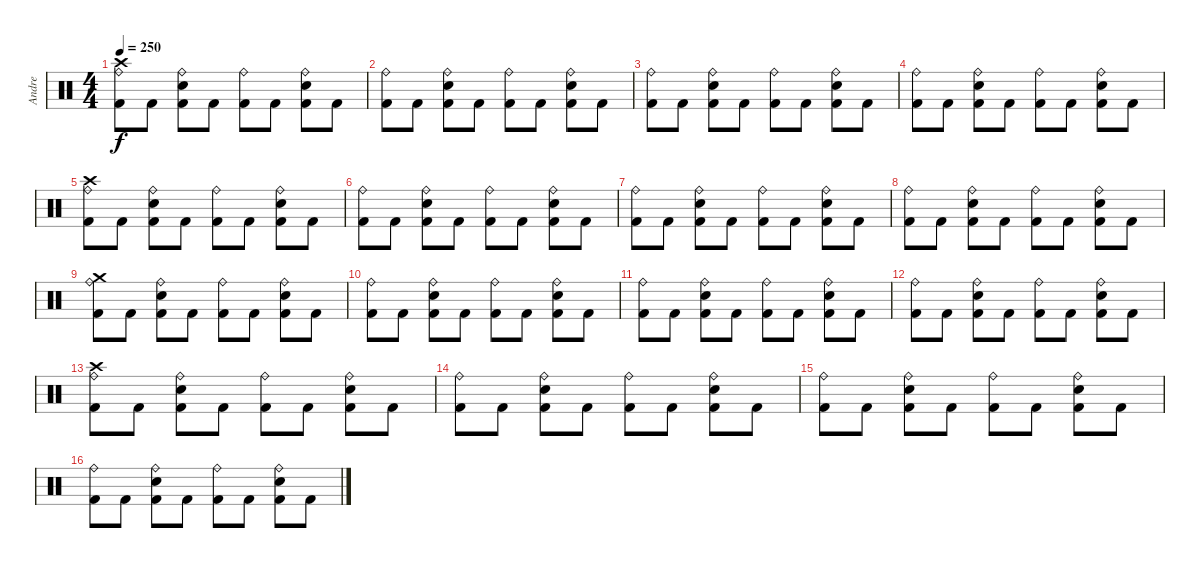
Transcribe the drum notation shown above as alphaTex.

\track ("Andre" "Andre") {instrument percussion}
\staff {score}
\articulation defaults
\ts (4 4)
\tempo 250
\clef neutral
\ks c
("Crash high (hit)" "Ride (bell)" "Kick (hit) 2").8{dy f} "Kick (hit) 2".8 ("Ride (bell)" "Snare (hit) 2" "Kick (hit) 2").8 "Kick (hit) 2".8 ("Ride (bell)" "Kick (hit) 2").8 "Kick (hit) 2".8 ("Ride (bell)" "Snare (hit) 2" "Kick (hit) 2").8 "Kick (hit) 2".8 |
("Ride (bell)" "Kick (hit) 2").8 "Kick (hit) 2".8 ("Ride (bell)" "Snare (hit) 2" "Kick (hit) 2").8 "Kick (hit) 2".8 ("Ride (bell)" "Kick (hit) 2").8 "Kick (hit) 2".8 ("Ride (bell)" "Snare (hit) 2" "Kick (hit) 2").8 "Kick (hit) 2".8 |
("Ride (bell)" "Kick (hit) 2").8 "Kick (hit) 2".8 ("Ride (bell)" "Snare (hit) 2" "Kick (hit) 2").8 "Kick (hit) 2".8 ("Ride (bell)" "Kick (hit) 2").8 "Kick (hit) 2".8 ("Ride (bell)" "Snare (hit) 2" "Kick (hit) 2").8 "Kick (hit) 2".8 |
("Ride (bell)" "Kick (hit) 2").8 "Kick (hit) 2".8 ("Ride (bell)" "Snare (hit) 2" "Kick (hit) 2").8 "Kick (hit) 2".8 ("Ride (bell)" "Kick (hit) 2").8 "Kick (hit) 2".8 ("Ride (bell)" "Snare (hit) 2" "Kick (hit) 2").8 "Kick (hit) 2".8 |
("Crash high (hit)" "Ride (bell)" "Kick (hit) 2").8 "Kick (hit) 2".8 ("Ride (bell)" "Snare (hit) 2" "Kick (hit) 2").8 "Kick (hit) 2".8 ("Ride (bell)" "Kick (hit) 2").8 "Kick (hit) 2".8 ("Ride (bell)" "Snare (hit) 2" "Kick (hit) 2").8 "Kick (hit) 2".8 |
("Ride (bell)" "Kick (hit) 2").8 "Kick (hit) 2".8 ("Ride (bell)" "Snare (hit) 2" "Kick (hit) 2").8 "Kick (hit) 2".8 ("Ride (bell)" "Kick (hit) 2").8 "Kick (hit) 2".8 ("Ride (bell)" "Snare (hit) 2" "Kick (hit) 2").8 "Kick (hit) 2".8 |
("Ride (bell)" "Kick (hit) 2").8 "Kick (hit) 2".8 ("Ride (bell)" "Snare (hit) 2" "Kick (hit) 2").8 "Kick (hit) 2".8 ("Ride (bell)" "Kick (hit) 2").8 "Kick (hit) 2".8 ("Ride (bell)" "Snare (hit) 2" "Kick (hit) 2").8 "Kick (hit) 2".8 |
("Ride (bell)" "Kick (hit) 2").8 "Kick (hit) 2".8 ("Ride (bell)" "Snare (hit) 2" "Kick (hit) 2").8 "Kick (hit) 2".8 ("Ride (bell)" "Kick (hit) 2").8 "Kick (hit) 2".8 ("Ride (bell)" "Snare (hit) 2" "Kick (hit) 2").8 "Kick (hit) 2".8 |
("Crash medium (hit)" "Ride (bell)" "Kick (hit) 2").8 "Kick (hit) 2".8 ("Ride (bell)" "Snare (hit) 2" "Kick (hit) 2").8 "Kick (hit) 2".8 ("Ride (bell)" "Kick (hit) 2").8 "Kick (hit) 2".8 ("Ride (bell)" "Snare (hit) 2" "Kick (hit) 2").8 "Kick (hit) 2".8 |
("Ride (bell)" "Kick (hit) 2").8 "Kick (hit) 2".8 ("Ride (bell)" "Snare (hit) 2" "Kick (hit) 2").8 "Kick (hit) 2".8 ("Ride (bell)" "Kick (hit) 2").8 "Kick (hit) 2".8 ("Ride (bell)" "Snare (hit) 2" "Kick (hit) 2").8 "Kick (hit) 2".8 |
("Ride (bell)" "Kick (hit) 2").8 "Kick (hit) 2".8 ("Ride (bell)" "Snare (hit) 2" "Kick (hit) 2").8 "Kick (hit) 2".8 ("Ride (bell)" "Kick (hit) 2").8 "Kick (hit) 2".8 ("Ride (bell)" "Snare (hit) 2" "Kick (hit) 2").8 "Kick (hit) 2".8 |
("Ride (bell)" "Kick (hit) 2").8 "Kick (hit) 2".8 ("Ride (bell)" "Snare (hit) 2" "Kick (hit) 2").8 "Kick (hit) 2".8 ("Ride (bell)" "Kick (hit) 2").8 "Kick (hit) 2".8 ("Ride (bell)" "Snare (hit) 2" "Kick (hit) 2").8 "Kick (hit) 2".8 |
("Crash high (hit)" "Ride (bell)" "Kick (hit) 2").8 "Kick (hit) 2".8 ("Ride (bell)" "Snare (hit) 2" "Kick (hit) 2").8 "Kick (hit) 2".8 ("Ride (bell)" "Kick (hit) 2").8 "Kick (hit) 2".8 ("Ride (bell)" "Snare (hit) 2" "Kick (hit) 2").8 "Kick (hit) 2".8 |
("Ride (bell)" "Kick (hit) 2").8 "Kick (hit) 2".8 ("Ride (bell)" "Snare (hit) 2" "Kick (hit) 2").8 "Kick (hit) 2".8 ("Ride (bell)" "Kick (hit) 2").8 "Kick (hit) 2".8 ("Ride (bell)" "Snare (hit) 2" "Kick (hit) 2").8 "Kick (hit) 2".8 |
("Ride (bell)" "Kick (hit) 2").8 "Kick (hit) 2".8 ("Ride (bell)" "Snare (hit) 2" "Kick (hit) 2").8 "Kick (hit) 2".8 ("Ride (bell)" "Kick (hit) 2").8 "Kick (hit) 2".8 ("Ride (bell)" "Snare (hit) 2" "Kick (hit) 2").8 "Kick (hit) 2".8 |
("Ride (bell)" "Kick (hit) 2").8 "Kick (hit) 2".8 ("Ride (bell)" "Snare (hit) 2" "Kick (hit) 2").8 "Kick (hit) 2".8 ("Ride (bell)" "Kick (hit) 2").8 "Kick (hit) 2".8 ("Ride (bell)" "Snare (hit) 2" "Kick (hit) 2").8 "Kick (hit) 2".8
